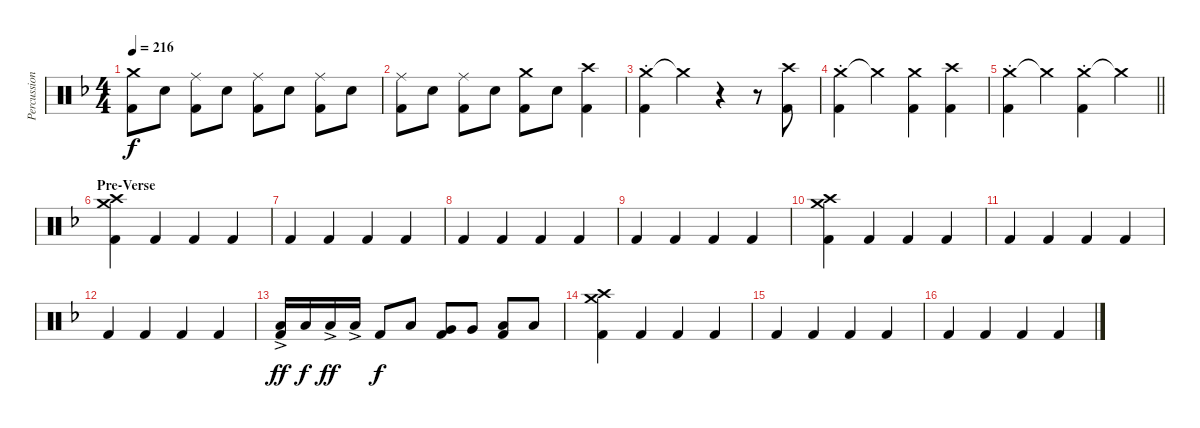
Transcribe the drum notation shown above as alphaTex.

\track ("Percussion" "Percussion") {instrument percussion}
\staff {score}
\articulation defaults
\ts (4 4)
\tempo 216
\clef neutral
\ks f
("Crash medium (hit)" "Kick (hit) 2").8{dy f} "Electric Snare (hit)".8 ("Ride (middle)" "Kick (hit) 2").8 "Electric Snare (hit)".8 ("Ride (middle)" "Kick (hit) 2").8 "Electric Snare (hit)".8 ("Ride (middle)" "Kick (hit) 2").8 "Electric Snare (hit)".8 |
("Ride (middle)" "Kick (hit) 2").8 "Electric Snare (hit)".8 ("Ride (middle)" "Kick (hit) 2").8 "Electric Snare (hit)".8 ("Crash medium (hit)" "Kick (hit) 2").8 "Electric Snare (hit)".8 ("Crash high (hit)" "Kick (hit) 2").4 |
("Crash medium (hit)"{st} "Kick (hit) 2").4 "Crash medium (hit)"{t}.4{volume 0} r.4 r.8 ("Crash high (hit)" "Kick (hit) 2").8{volume 14} |
("Crash medium (hit)"{st} "Kick (hit) 2").4 "Crash medium (hit)"{t}.4{volume 0} ("Crash medium (hit)" "Kick (hit) 2").4{volume 14} ("Crash high (hit)" "Kick (hit) 2").4 |
\barLineRight lightlight
("Crash medium (hit)"{st} "Kick (hit) 2").4 "Crash medium (hit)"{t}.4{volume 0} ("Crash medium (hit)"{st} "Kick (hit) 2").4{volume 14} "Crash medium (hit)"{t}.4{volume 0} |
\section ("" "Pre-Verse")
("Crash medium (hit)" "Crash high (hit)" "Kick (hit) 2").4{volume 14} "Kick (hit) 2".4 "Kick (hit) 2".4 "Kick (hit) 2".4 |
"Kick (hit) 2".4 "Kick (hit) 2".4 "Kick (hit) 2".4 "Kick (hit) 2".4 |
"Kick (hit) 2".4 "Kick (hit) 2".4 "Kick (hit) 2".4 "Kick (hit) 2".4 |
"Kick (hit) 2".4 "Kick (hit) 2".4 "Kick (hit) 2".4 "Kick (hit) 2".4 |
("Crash medium (hit)" "Crash high (hit)" "Kick (hit) 2").4 "Kick (hit) 2".4 "Kick (hit) 2".4 "Kick (hit) 2".4 |
"Kick (hit) 2".4 "Kick (hit) 2".4 "Kick (hit) 2".4 "Kick (hit) 2".4 |
"Kick (hit) 2".4 "Kick (hit) 2".4 "Kick (hit) 2".4 "Kick (hit) 2".4 |
("Low Tom (hit)"{ac} "Kick (hit) 2").16{dy ff} "Low Tom (hit)".16{dy f} "Low Tom (hit)"{ac}.16{dy ff} "Low Tom (hit)"{ac}.16 "Kick (hit) 2".8{dy f} "Low Tom (hit)".8 ("Very Low Tom (hit)" "Kick (hit) 2").8 "Very Low Tom (hit)".8 ("Low Floor Tom (hit)" "Kick (hit) 2").8 "Low Floor Tom (hit)".8 |
("Crash medium (hit)" "Crash high (hit)" "Kick (hit) 2").4 "Kick (hit) 2".4 "Kick (hit) 2".4 "Kick (hit) 2".4 |
"Kick (hit) 2".4 "Kick (hit) 2".4 "Kick (hit) 2".4 "Kick (hit) 2".4 |
"Kick (hit) 2".4 "Kick (hit) 2".4 "Kick (hit) 2".4 "Kick (hit) 2".4
